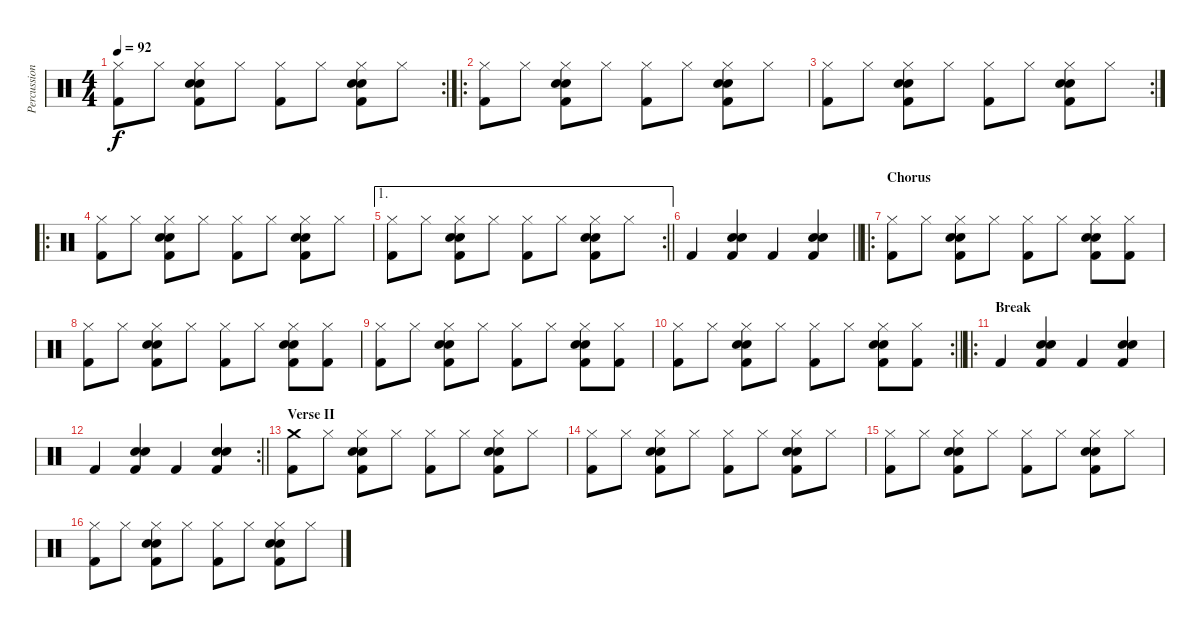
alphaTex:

\track ("Percussion" "Percussion") {instrument percussion}
\staff {score}
\articulation defaults
\rc 2
\ts (4 4)
\tempo 92
\clef neutral
\ks c
("Hi-Hat (closed)" "Kick (hit) 2").8{dy f} "Hi-Hat (closed)".8 ("Hi-Hat (closed)" "Electric Snare (hit)" "Hand Clap (hit)" "Kick (hit) 2").8 "Hi-Hat (closed)".8 ("Hi-Hat (closed)" "Kick (hit) 2").8 "Hi-Hat (closed)".8 ("Hi-Hat (closed)" "Electric Snare (hit)" "Hand Clap (hit)" "Kick (hit) 2").8 "Hi-Hat (closed)".8 |
\ro
("Hi-Hat (closed)" "Kick (hit) 2").8 "Hi-Hat (closed)".8 ("Hi-Hat (closed)" "Electric Snare (hit)" "Hand Clap (hit)" "Kick (hit) 2").8 "Hi-Hat (closed)".8 ("Hi-Hat (closed)" "Kick (hit) 2").8 "Hi-Hat (closed)".8 ("Hi-Hat (closed)" "Electric Snare (hit)" "Hand Clap (hit)" "Kick (hit) 2").8 "Hi-Hat (closed)".8 |
\rc 2
("Hi-Hat (closed)" "Kick (hit) 2").8 "Hi-Hat (closed)".8 ("Hi-Hat (closed)" "Electric Snare (hit)" "Hand Clap (hit)" "Kick (hit) 2").8 "Hi-Hat (closed)".8 ("Hi-Hat (closed)" "Kick (hit) 2").8 "Hi-Hat (closed)".8 ("Hi-Hat (closed)" "Electric Snare (hit)" "Hand Clap (hit)" "Kick (hit) 2").8 "Hi-Hat (closed)".8 |
\ro
("Hi-Hat (closed)" "Kick (hit) 2").8 "Hi-Hat (closed)".8 ("Hi-Hat (closed)" "Electric Snare (hit)" "Hand Clap (hit)" "Kick (hit) 2").8 "Hi-Hat (closed)".8 ("Hi-Hat (closed)" "Kick (hit) 2").8 "Hi-Hat (closed)".8 ("Hi-Hat (closed)" "Electric Snare (hit)" "Hand Clap (hit)" "Kick (hit) 2").8 "Hi-Hat (closed)".8 |
\ae 1
\rc 2
\barLineRight lightlight
("Hi-Hat (closed)" "Kick (hit) 2").8 "Hi-Hat (closed)".8 ("Hi-Hat (closed)" "Electric Snare (hit)" "Hand Clap (hit)" "Kick (hit) 2").8 "Hi-Hat (closed)".8 ("Hi-Hat (closed)" "Kick (hit) 2").8 "Hi-Hat (closed)".8 ("Hi-Hat (closed)" "Electric Snare (hit)" "Hand Clap (hit)" "Kick (hit) 2").8 "Hi-Hat (closed)".8 |
\section ("" "")
\barLineRight lightlight "Kick (hit) 2".4
("Electric Snare (hit)" "Hand Clap (hit)" "Kick (hit) 2").4 "Kick (hit) 2".4 ("Electric Snare (hit)" "Hand Clap (hit)" "Kick (hit) 2").4 |
\ro
\section ("" "Chorus")
("Hi-Hat (closed)" "Kick (hit) 2").8 "Hi-Hat (closed)".8 ("Hi-Hat (closed)" "Electric Snare (hit)" "Hand Clap (hit)" "Kick (hit) 2").8 "Hi-Hat (closed)".8 ("Hi-Hat (closed)" "Kick (hit) 2").8 "Hi-Hat (closed)".8 ("Hi-Hat (closed)" "Electric Snare (hit)" "Hand Clap (hit)" "Kick (hit) 2").8 ("Hi-Hat (closed)" "Kick (hit) 2").8 |
("Hi-Hat (closed)" "Kick (hit) 2").8 "Hi-Hat (closed)".8 ("Hi-Hat (closed)" "Electric Snare (hit)" "Hand Clap (hit)" "Kick (hit) 2").8 "Hi-Hat (closed)".8 ("Hi-Hat (closed)" "Kick (hit) 2").8 "Hi-Hat (closed)".8 ("Hi-Hat (closed)" "Electric Snare (hit)" "Hand Clap (hit)" "Kick (hit) 2").8 ("Hi-Hat (closed)" "Kick (hit) 2").8 |
("Hi-Hat (closed)" "Kick (hit) 2").8 "Hi-Hat (closed)".8 ("Hi-Hat (closed)" "Electric Snare (hit)" "Hand Clap (hit)" "Kick (hit) 2").8 "Hi-Hat (closed)".8 ("Hi-Hat (closed)" "Kick (hit) 2").8 "Hi-Hat (closed)".8 ("Hi-Hat (closed)" "Electric Snare (hit)" "Hand Clap (hit)" "Kick (hit) 2").8 ("Hi-Hat (closed)" "Kick (hit) 2").8 |
\rc 2
\barLineRight lightlight
("Hi-Hat (closed)" "Kick (hit) 2").8 "Hi-Hat (closed)".8 ("Hi-Hat (closed)" "Electric Snare (hit)" "Hand Clap (hit)" "Kick (hit) 2").8 "Hi-Hat (closed)".8 ("Hi-Hat (closed)" "Kick (hit) 2").8 "Hi-Hat (closed)".8 ("Hi-Hat (closed)" "Electric Snare (hit)" "Hand Clap (hit)" "Kick (hit) 2").8 ("Hi-Hat (closed)" "Kick (hit) 2").8 |
\ro
\section ("" "Break")
"Kick (hit) 2".4 ("Electric Snare (hit)" "Hand Clap (hit)" "Kick (hit) 2").4 "Kick (hit) 2".4 ("Electric Snare (hit)" "Hand Clap (hit)" "Kick (hit) 2").4 |
\rc 2
\barLineRight lightlight "Kick (hit) 2".4
("Electric Snare (hit)" "Hand Clap (hit)" "Kick (hit) 2").4 "Kick (hit) 2".4 ("Electric Snare (hit)" "Hand Clap (hit)" "Kick (hit) 2").4 |
\section ("" "Verse II")
("Crash medium (hit)" "Kick (hit) 2").8 "Hi-Hat (closed)".8 ("Hi-Hat (closed)" "Electric Snare (hit)" "Hand Clap (hit)" "Kick (hit) 2").8 "Hi-Hat (closed)".8 ("Hi-Hat (closed)" "Kick (hit) 2").8 "Hi-Hat (closed)".8 ("Hi-Hat (closed)" "Electric Snare (hit)" "Hand Clap (hit)" "Kick (hit) 2").8 "Hi-Hat (closed)".8 |
("Hi-Hat (closed)" "Kick (hit) 2").8 "Hi-Hat (closed)".8 ("Hi-Hat (closed)" "Electric Snare (hit)" "Hand Clap (hit)" "Kick (hit) 2").8 "Hi-Hat (closed)".8 ("Hi-Hat (closed)" "Kick (hit) 2").8 "Hi-Hat (closed)".8 ("Hi-Hat (closed)" "Electric Snare (hit)" "Hand Clap (hit)" "Kick (hit) 2").8 "Hi-Hat (closed)".8 |
("Hi-Hat (closed)" "Kick (hit) 2").8 "Hi-Hat (closed)".8 ("Hi-Hat (closed)" "Electric Snare (hit)" "Hand Clap (hit)" "Kick (hit) 2").8 "Hi-Hat (closed)".8 ("Hi-Hat (closed)" "Kick (hit) 2").8 "Hi-Hat (closed)".8 ("Hi-Hat (closed)" "Electric Snare (hit)" "Hand Clap (hit)" "Kick (hit) 2").8 "Hi-Hat (closed)".8 |
("Hi-Hat (closed)" "Kick (hit) 2").8 "Hi-Hat (closed)".8 ("Hi-Hat (closed)" "Electric Snare (hit)" "Hand Clap (hit)" "Kick (hit) 2").8 "Hi-Hat (closed)".8 ("Hi-Hat (closed)" "Kick (hit) 2").8 "Hi-Hat (closed)".8 ("Hi-Hat (closed)" "Electric Snare (hit)" "Hand Clap (hit)" "Kick (hit) 2").8 "Hi-Hat (closed)".8
